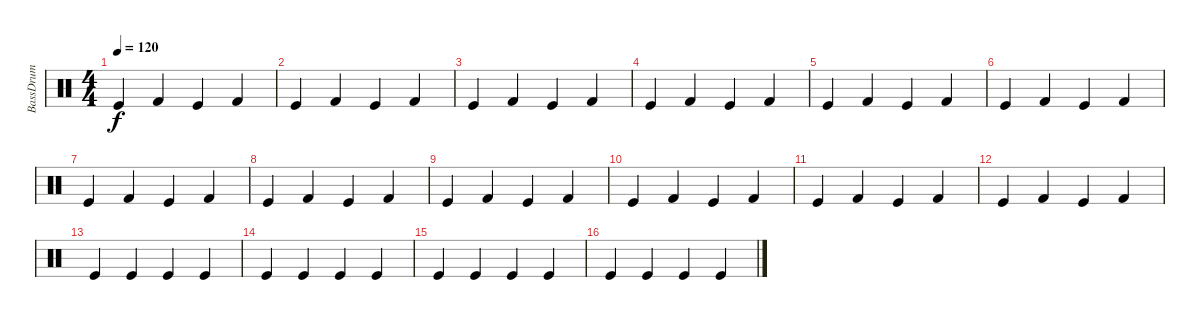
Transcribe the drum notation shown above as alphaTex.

\track ("BassDrum" "BassDrum") {instrument percussion}
\staff {score}
\articulation defaults
\ts (4 4)
\tempo 120
\clef neutral
\ks c "Kick (hit)".4{dy f} "Kick (hit) 2".4 "Kick (hit)".4 "Kick (hit) 2".4
|
"Kick (hit)".4 "Kick (hit) 2".4 "Kick (hit)".4 "Kick (hit) 2".4 |
"Kick (hit)".4 "Kick (hit) 2".4 "Kick (hit)".4 "Kick (hit) 2".4 |
"Kick (hit)".4 "Kick (hit) 2".4 "Kick (hit)".4 "Kick (hit) 2".4 |
"Kick (hit)".4 "Kick (hit) 2".4 "Kick (hit)".4 "Kick (hit) 2".4 |
"Kick (hit)".4 "Kick (hit) 2".4 "Kick (hit)".4 "Kick (hit) 2".4 |
"Kick (hit)".4 "Kick (hit) 2".4 "Kick (hit)".4 "Kick (hit) 2".4 |
"Kick (hit)".4 "Kick (hit) 2".4 "Kick (hit)".4 "Kick (hit) 2".4 |
"Kick (hit)".4 "Kick (hit) 2".4 "Kick (hit)".4 "Kick (hit) 2".4 |
"Kick (hit)".4 "Kick (hit) 2".4 "Kick (hit)".4 "Kick (hit) 2".4 |
"Kick (hit)".4 "Kick (hit) 2".4 "Kick (hit)".4 "Kick (hit) 2".4 |
"Kick (hit)".4 "Kick (hit) 2".4 "Kick (hit)".4 "Kick (hit) 2".4 |
"Kick (hit)".4 "Kick (hit)".4 "Kick (hit)".4 "Kick (hit)".4 |
"Kick (hit)".4 "Kick (hit)".4 "Kick (hit)".4 "Kick (hit)".4 |
"Kick (hit)".4 "Kick (hit)".4 "Kick (hit)".4 "Kick (hit)".4 |
"Kick (hit)".4 "Kick (hit)".4 "Kick (hit)".4 "Kick (hit)".4
